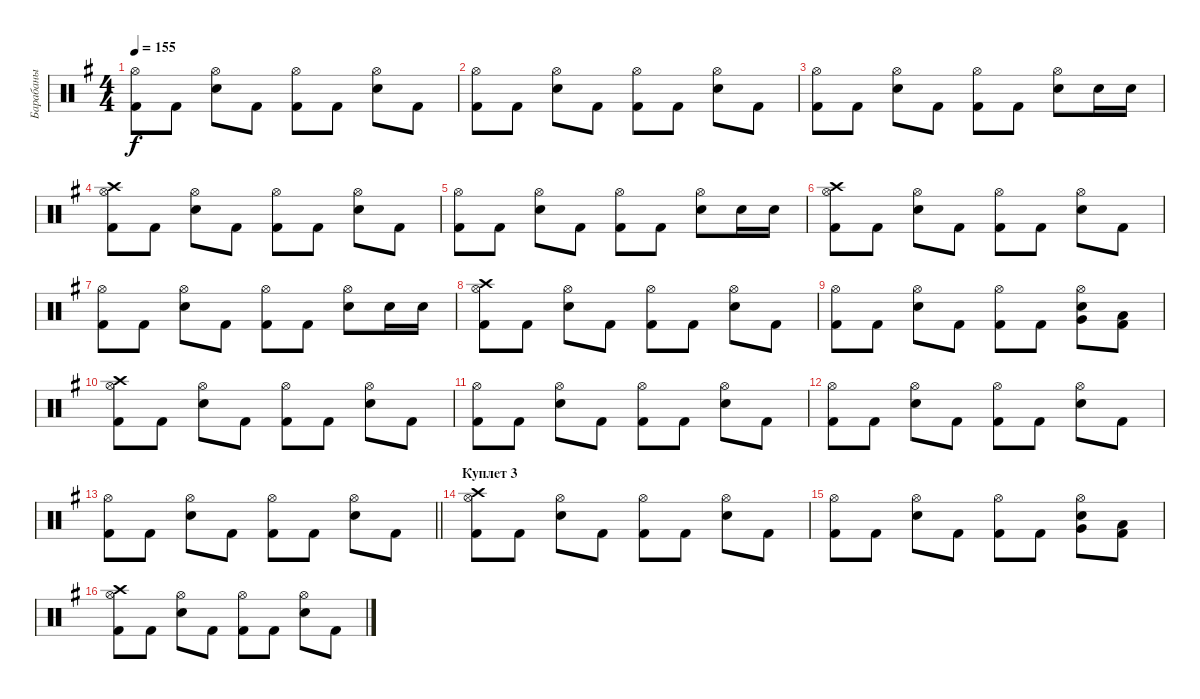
\track ("Барабаны" "Барабаны") {instrument percussion}
\staff {score}
\articulation defaults
\ts (4 4)
\tempo 155
\clef neutral
\ks eminor
("Kick (hit) 2" "Hi-Hat (open)").8{dy f} "Kick (hit) 2".8 ("Electric Snare (hit)" "Hi-Hat (open)").8 "Kick (hit) 2".8 ("Kick (hit) 2" "Hi-Hat (open)").8 "Kick (hit) 2".8 ("Electric Snare (hit)" "Hi-Hat (open)").8 "Kick (hit) 2".8 |
("Kick (hit) 2" "Hi-Hat (open)").8 "Kick (hit) 2".8 ("Electric Snare (hit)" "Hi-Hat (open)").8 "Kick (hit) 2".8 ("Kick (hit) 2" "Hi-Hat (open)").8 "Kick (hit) 2".8 ("Electric Snare (hit)" "Hi-Hat (open)").8 "Kick (hit) 2".8 |
("Kick (hit) 2" "Hi-Hat (open)").8 "Kick (hit) 2".8 ("Electric Snare (hit)" "Hi-Hat (open)").8 "Kick (hit) 2".8 ("Kick (hit) 2" "Hi-Hat (open)").8 "Kick (hit) 2".8 ("Electric Snare (hit)" "Hi-Hat (open)").8 "Electric Snare (hit)".16 "Electric Snare (hit)".16 |
("Kick (hit) 2" "Hi-Hat (open)" "Crash high (hit)").8 "Kick (hit) 2".8 ("Electric Snare (hit)" "Hi-Hat (open)").8 "Kick (hit) 2".8 ("Kick (hit) 2" "Hi-Hat (open)").8 "Kick (hit) 2".8 ("Electric Snare (hit)" "Hi-Hat (open)").8 "Kick (hit) 2".8 |
("Kick (hit) 2" "Hi-Hat (open)").8 "Kick (hit) 2".8 ("Electric Snare (hit)" "Hi-Hat (open)").8 "Kick (hit) 2".8 ("Kick (hit) 2" "Hi-Hat (open)").8 "Kick (hit) 2".8 ("Electric Snare (hit)" "Hi-Hat (open)").8 "Electric Snare (hit)".16 "Electric Snare (hit)".16 |
("Kick (hit) 2" "Hi-Hat (open)" "Crash high (hit)").8 "Kick (hit) 2".8 ("Electric Snare (hit)" "Hi-Hat (open)").8 "Kick (hit) 2".8 ("Kick (hit) 2" "Hi-Hat (open)").8 "Kick (hit) 2".8 ("Electric Snare (hit)" "Hi-Hat (open)").8 "Kick (hit) 2".8 |
("Kick (hit) 2" "Hi-Hat (open)").8 "Kick (hit) 2".8 ("Electric Snare (hit)" "Hi-Hat (open)").8 "Kick (hit) 2".8 ("Kick (hit) 2" "Hi-Hat (open)").8 "Kick (hit) 2".8 ("Electric Snare (hit)" "Hi-Hat (open)").8 "Electric Snare (hit)".16 "Electric Snare (hit)".16 |
("Kick (hit) 2" "Hi-Hat (open)" "Crash high (hit)").8 "Kick (hit) 2".8 ("Electric Snare (hit)" "Hi-Hat (open)").8 "Kick (hit) 2".8 ("Kick (hit) 2" "Hi-Hat (open)").8 "Kick (hit) 2".8 ("Electric Snare (hit)" "Hi-Hat (open)").8 "Kick (hit) 2".8 |
("Kick (hit) 2" "Hi-Hat (open)").8 "Kick (hit) 2".8 ("Electric Snare (hit)" "Hi-Hat (open)").8 "Kick (hit) 2".8 ("Kick (hit) 2" "Hi-Hat (open)").8 "Kick (hit) 2".8 ("Electric Snare (hit)" "Hi-Hat (open)" "Very Low Tom (hit)").8 ("Kick (hit) 2" "Low Floor Tom (hit)").8 |
("Kick (hit) 2" "Hi-Hat (open)" "Crash high (hit)").8 "Kick (hit) 2".8 ("Electric Snare (hit)" "Hi-Hat (open)").8 "Kick (hit) 2".8 ("Kick (hit) 2" "Hi-Hat (open)").8 "Kick (hit) 2".8 ("Electric Snare (hit)" "Hi-Hat (open)").8 "Kick (hit) 2".8 |
("Kick (hit) 2" "Hi-Hat (open)").8 "Kick (hit) 2".8 ("Electric Snare (hit)" "Hi-Hat (open)").8 "Kick (hit) 2".8 ("Kick (hit) 2" "Hi-Hat (open)").8 "Kick (hit) 2".8 ("Electric Snare (hit)" "Hi-Hat (open)").8 "Kick (hit) 2".8 |
("Kick (hit) 2" "Hi-Hat (open)").8 "Kick (hit) 2".8 ("Electric Snare (hit)" "Hi-Hat (open)").8 "Kick (hit) 2".8 ("Kick (hit) 2" "Hi-Hat (open)").8 "Kick (hit) 2".8 ("Electric Snare (hit)" "Hi-Hat (open)").8 "Kick (hit) 2".8 |
\barLineRight lightlight
("Kick (hit) 2" "Hi-Hat (open)").8 "Kick (hit) 2".8 ("Electric Snare (hit)" "Hi-Hat (open)").8 "Kick (hit) 2".8 ("Kick (hit) 2" "Hi-Hat (open)").8 "Kick (hit) 2".8 ("Electric Snare (hit)" "Hi-Hat (open)").8 "Kick (hit) 2".8 |
\section ("" "Куплет 3")
("Kick (hit) 2" "Hi-Hat (open)" "Crash high (hit)").8 "Kick (hit) 2".8 ("Electric Snare (hit)" "Hi-Hat (open)").8 "Kick (hit) 2".8 ("Kick (hit) 2" "Hi-Hat (open)").8 "Kick (hit) 2".8 ("Electric Snare (hit)" "Hi-Hat (open)").8 "Kick (hit) 2".8 |
("Kick (hit) 2" "Hi-Hat (open)").8 "Kick (hit) 2".8 ("Electric Snare (hit)" "Hi-Hat (open)").8 "Kick (hit) 2".8 ("Kick (hit) 2" "Hi-Hat (open)").8 "Kick (hit) 2".8 ("Electric Snare (hit)" "Hi-Hat (open)" "Very Low Tom (hit)").8 ("Kick (hit) 2" "Low Floor Tom (hit)").8 |
("Kick (hit) 2" "Hi-Hat (open)" "Crash high (hit)").8 "Kick (hit) 2".8 ("Electric Snare (hit)" "Hi-Hat (open)").8 "Kick (hit) 2".8 ("Kick (hit) 2" "Hi-Hat (open)").8 "Kick (hit) 2".8 ("Electric Snare (hit)" "Hi-Hat (open)").8 "Kick (hit) 2".8
